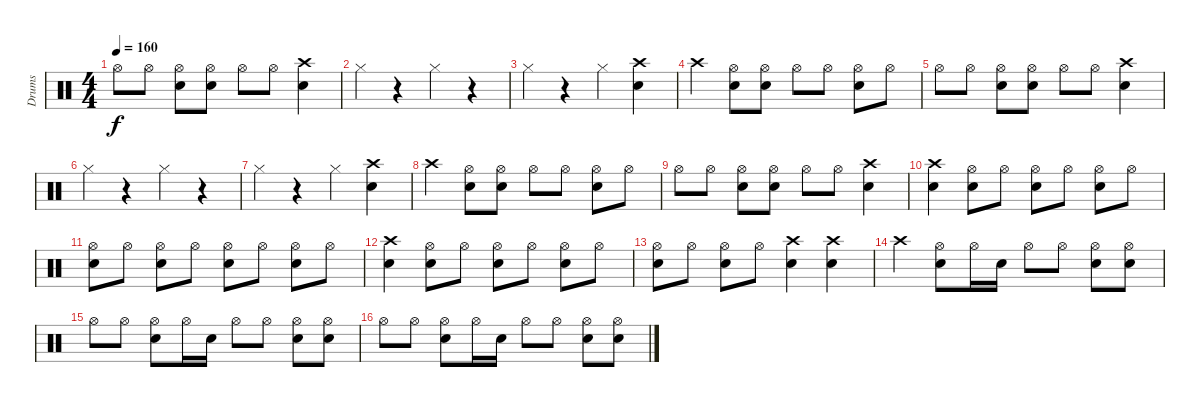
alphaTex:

\track ("Drums" "Drums") {instrument percussion}
\staff {score}
\articulation defaults
\ts (4 4)
\tempo 160
\clef neutral
\ks c "Hi-Hat (open)".8{dy f} "Hi-Hat (open)".8
("Hi-Hat (open)" "Snare (hit) 2").8 ("Hi-Hat (open)" "Snare (hit) 2").8 "Hi-Hat (open)".8 "Hi-Hat (open)".8 ("Crash high (hit)" "Snare (hit) 2").4 |
"Hi-Hat (closed)".4 r.4 "Hi-Hat (closed)".4 r.4 |
"Hi-Hat (closed)".4 r.4 "Hi-Hat (closed)".4 ("Crash high (hit)" "Snare (hit) 2").4 |
"Crash high (hit)".4 ("Hi-Hat (open)" "Snare (hit) 2").8 ("Hi-Hat (open)" "Snare (hit) 2").8 "Hi-Hat (open)".8 "Hi-Hat (open)".8 ("Hi-Hat (open)" "Snare (hit) 2").8 "Hi-Hat (open)".8 |
"Hi-Hat (open)".8 "Hi-Hat (open)".8 ("Hi-Hat (open)" "Snare (hit) 2").8 ("Hi-Hat (open)" "Snare (hit) 2").8 "Hi-Hat (open)".8 "Hi-Hat (open)".8 ("Crash high (hit)" "Snare (hit) 2").4 |
"Hi-Hat (closed)".4 r.4 "Hi-Hat (closed)".4 r.4 |
"Hi-Hat (closed)".4 r.4 "Hi-Hat (closed)".4 ("Crash high (hit)" "Snare (hit) 2").4 |
"Crash high (hit)".4 ("Hi-Hat (open)" "Snare (hit) 2").8 ("Hi-Hat (open)" "Snare (hit) 2").8 "Hi-Hat (open)".8 "Hi-Hat (open)".8 ("Hi-Hat (open)" "Snare (hit) 2").8 "Hi-Hat (open)".8 |
"Hi-Hat (open)".8 "Hi-Hat (open)".8 ("Hi-Hat (open)" "Snare (hit) 2").8 ("Hi-Hat (open)" "Snare (hit) 2").8 "Hi-Hat (open)".8 "Hi-Hat (open)".8 ("Crash high (hit)" "Snare (hit) 2").4 |
("Crash high (hit)" "Snare (hit) 2").4 ("Hi-Hat (open)" "Snare (hit) 2").8 "Hi-Hat (open)".8 ("Hi-Hat (open)" "Snare (hit) 2").8 "Hi-Hat (open)".8 ("Hi-Hat (open)" "Snare (hit) 2").8 "Hi-Hat (open)".8 |
("Hi-Hat (open)" "Snare (hit) 2").8 "Hi-Hat (open)".8 ("Hi-Hat (open)" "Snare (hit) 2").8 "Hi-Hat (open)".8 ("Hi-Hat (open)" "Snare (hit) 2").8 "Hi-Hat (open)".8 ("Hi-Hat (open)" "Snare (hit) 2").8 "Hi-Hat (open)".8 |
("Crash high (hit)" "Snare (hit) 2").4 ("Hi-Hat (open)" "Snare (hit) 2").8 "Hi-Hat (open)".8 ("Hi-Hat (open)" "Snare (hit) 2").8 "Hi-Hat (open)".8 ("Hi-Hat (open)" "Snare (hit) 2").8 "Hi-Hat (open)".8 |
("Hi-Hat (open)" "Snare (hit) 2").8 "Hi-Hat (open)".8 ("Hi-Hat (open)" "Snare (hit) 2").8 "Hi-Hat (open)".8 ("Crash high (hit)" "Snare (hit) 2").4 ("Crash high (hit)" "Snare (hit) 2").4 |
"Crash high (hit)".4 ("Hi-Hat (open)" "Snare (hit) 2").8 "Hi-Hat (open)".16 "Snare (hit) 2".16 "Hi-Hat (open)".8 "Hi-Hat (open)".8 ("Hi-Hat (open)" "Snare (hit) 2").8 ("Hi-Hat (open)" "Snare (hit) 2").8 |
"Hi-Hat (open)".8 "Hi-Hat (open)".8 ("Hi-Hat (open)" "Snare (hit) 2").8 "Hi-Hat (open)".16 "Snare (hit) 2".16 "Hi-Hat (open)".8 "Hi-Hat (open)".8 ("Hi-Hat (open)" "Snare (hit) 2").8 ("Hi-Hat (open)" "Snare (hit) 2").8 |
"Hi-Hat (open)".8 "Hi-Hat (open)".8 ("Hi-Hat (open)" "Snare (hit) 2").8 "Hi-Hat (open)".16 "Snare (hit) 2".16 "Hi-Hat (open)".8 "Hi-Hat (open)".8 ("Hi-Hat (open)" "Snare (hit) 2").8 ("Hi-Hat (open)" "Snare (hit) 2").8
